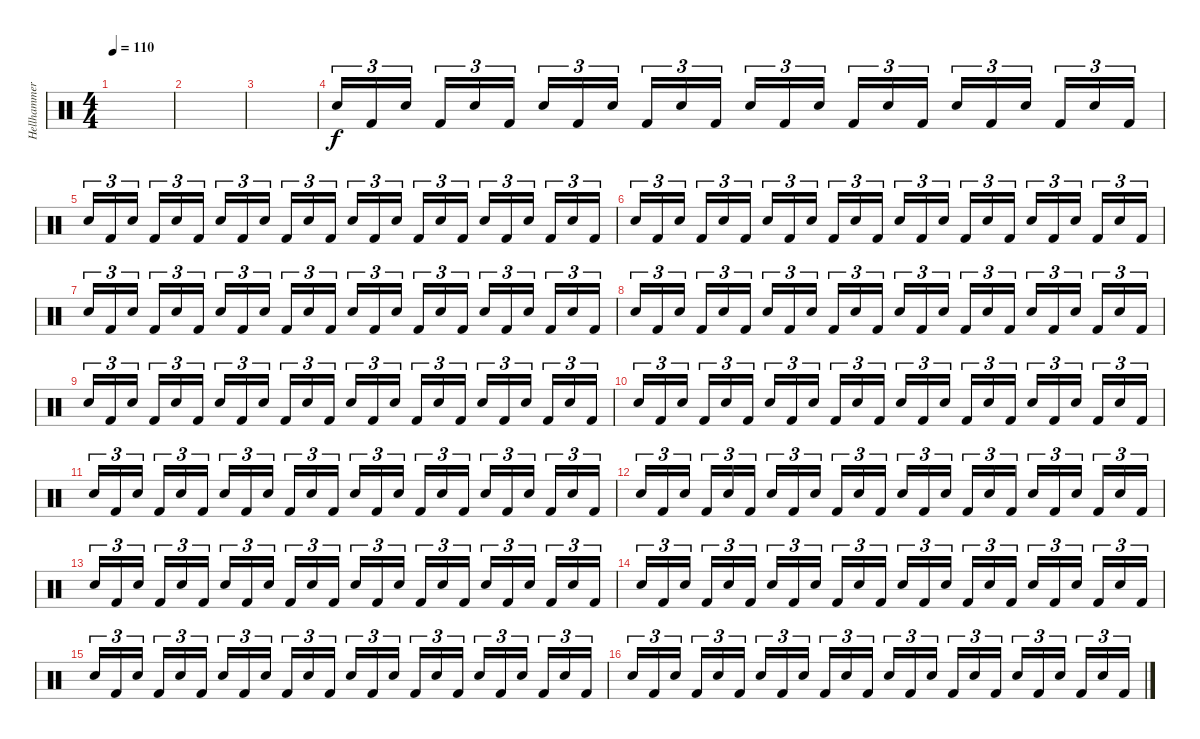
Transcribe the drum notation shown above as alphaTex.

\track ("Hellhammer" "Hellhammer") {instrument percussion}
\staff {score}
\articulation defaults
\ts (4 4)
\tempo 110
\clef neutral
\ks c
|
|
|
"Electric Snare (hit)".16{tu (3 2)} "Kick (hit) 2".16{tu (3 2)} "Electric Snare (hit)".16{tu (3 2)} "Kick (hit) 2".16{tu (3 2)} "Electric Snare (hit)".16{tu (3 2)} "Kick (hit) 2".16{tu (3 2)} "Electric Snare (hit)".16{tu (3 2)} "Kick (hit) 2".16{tu (3 2)} "Electric Snare (hit)".16{tu (3 2)} "Kick (hit) 2".16{tu (3 2)} "Electric Snare (hit)".16{tu (3 2)} "Kick (hit) 2".16{tu (3 2)} "Electric Snare (hit)".16{tu (3 2)} "Kick (hit) 2".16{tu (3 2)} "Electric Snare (hit)".16{tu (3 2)} "Kick (hit) 2".16{tu (3 2)} "Electric Snare (hit)".16{tu (3 2)} "Kick (hit) 2".16{tu (3 2)} "Electric Snare (hit)".16{tu (3 2)} "Kick (hit) 2".16{tu (3 2)} "Electric Snare (hit)".16{tu (3 2)} "Kick (hit) 2".16{tu (3 2)} "Electric Snare (hit)".16{tu (3 2)} "Kick (hit) 2".16{tu (3 2)} |
"Electric Snare (hit)".16{tu (3 2)} "Kick (hit) 2".16{tu (3 2)} "Electric Snare (hit)".16{tu (3 2)} "Kick (hit) 2".16{tu (3 2)} "Electric Snare (hit)".16{tu (3 2)} "Kick (hit) 2".16{tu (3 2)} "Electric Snare (hit)".16{tu (3 2)} "Kick (hit) 2".16{tu (3 2)} "Electric Snare (hit)".16{tu (3 2)} "Kick (hit) 2".16{tu (3 2)} "Electric Snare (hit)".16{tu (3 2)} "Kick (hit) 2".16{tu (3 2)} "Electric Snare (hit)".16{tu (3 2)} "Kick (hit) 2".16{tu (3 2)} "Electric Snare (hit)".16{tu (3 2)} "Kick (hit) 2".16{tu (3 2)} "Electric Snare (hit)".16{tu (3 2)} "Kick (hit) 2".16{tu (3 2)} "Electric Snare (hit)".16{tu (3 2)} "Kick (hit) 2".16{tu (3 2)} "Electric Snare (hit)".16{tu (3 2)} "Kick (hit) 2".16{tu (3 2)} "Electric Snare (hit)".16{tu (3 2)} "Kick (hit) 2".16{tu (3 2)} |
"Electric Snare (hit)".16{tu (3 2)} "Kick (hit) 2".16{tu (3 2)} "Electric Snare (hit)".16{tu (3 2)} "Kick (hit) 2".16{tu (3 2)} "Electric Snare (hit)".16{tu (3 2)} "Kick (hit) 2".16{tu (3 2)} "Electric Snare (hit)".16{tu (3 2)} "Kick (hit) 2".16{tu (3 2)} "Electric Snare (hit)".16{tu (3 2)} "Kick (hit) 2".16{tu (3 2)} "Electric Snare (hit)".16{tu (3 2)} "Kick (hit) 2".16{tu (3 2)} "Electric Snare (hit)".16{tu (3 2)} "Kick (hit) 2".16{tu (3 2)} "Electric Snare (hit)".16{tu (3 2)} "Kick (hit) 2".16{tu (3 2)} "Electric Snare (hit)".16{tu (3 2)} "Kick (hit) 2".16{tu (3 2)} "Electric Snare (hit)".16{tu (3 2)} "Kick (hit) 2".16{tu (3 2)} "Electric Snare (hit)".16{tu (3 2)} "Kick (hit) 2".16{tu (3 2)} "Electric Snare (hit)".16{tu (3 2)} "Kick (hit) 2".16{tu (3 2)} |
"Electric Snare (hit)".16{tu (3 2)} "Kick (hit) 2".16{tu (3 2)} "Electric Snare (hit)".16{tu (3 2)} "Kick (hit) 2".16{tu (3 2)} "Electric Snare (hit)".16{tu (3 2)} "Kick (hit) 2".16{tu (3 2)} "Electric Snare (hit)".16{tu (3 2)} "Kick (hit) 2".16{tu (3 2)} "Electric Snare (hit)".16{tu (3 2)} "Kick (hit) 2".16{tu (3 2)} "Electric Snare (hit)".16{tu (3 2)} "Kick (hit) 2".16{tu (3 2)} "Electric Snare (hit)".16{tu (3 2)} "Kick (hit) 2".16{tu (3 2)} "Electric Snare (hit)".16{tu (3 2)} "Kick (hit) 2".16{tu (3 2)} "Electric Snare (hit)".16{tu (3 2)} "Kick (hit) 2".16{tu (3 2)} "Electric Snare (hit)".16{tu (3 2)} "Kick (hit) 2".16{tu (3 2)} "Electric Snare (hit)".16{tu (3 2)} "Kick (hit) 2".16{tu (3 2)} "Electric Snare (hit)".16{tu (3 2)} "Kick (hit) 2".16{tu (3 2)} |
"Electric Snare (hit)".16{tu (3 2)} "Kick (hit) 2".16{tu (3 2)} "Electric Snare (hit)".16{tu (3 2)} "Kick (hit) 2".16{tu (3 2)} "Electric Snare (hit)".16{tu (3 2)} "Kick (hit) 2".16{tu (3 2)} "Electric Snare (hit)".16{tu (3 2)} "Kick (hit) 2".16{tu (3 2)} "Electric Snare (hit)".16{tu (3 2)} "Kick (hit) 2".16{tu (3 2)} "Electric Snare (hit)".16{tu (3 2)} "Kick (hit) 2".16{tu (3 2)} "Electric Snare (hit)".16{tu (3 2)} "Kick (hit) 2".16{tu (3 2)} "Electric Snare (hit)".16{tu (3 2)} "Kick (hit) 2".16{tu (3 2)} "Electric Snare (hit)".16{tu (3 2)} "Kick (hit) 2".16{tu (3 2)} "Electric Snare (hit)".16{tu (3 2)} "Kick (hit) 2".16{tu (3 2)} "Electric Snare (hit)".16{tu (3 2)} "Kick (hit) 2".16{tu (3 2)} "Electric Snare (hit)".16{tu (3 2)} "Kick (hit) 2".16{tu (3 2)} |
"Electric Snare (hit)".16{tu (3 2)} "Kick (hit) 2".16{tu (3 2)} "Electric Snare (hit)".16{tu (3 2)} "Kick (hit) 2".16{tu (3 2)} "Electric Snare (hit)".16{tu (3 2)} "Kick (hit) 2".16{tu (3 2)} "Electric Snare (hit)".16{tu (3 2)} "Kick (hit) 2".16{tu (3 2)} "Electric Snare (hit)".16{tu (3 2)} "Kick (hit) 2".16{tu (3 2)} "Electric Snare (hit)".16{tu (3 2)} "Kick (hit) 2".16{tu (3 2)} "Electric Snare (hit)".16{tu (3 2)} "Kick (hit) 2".16{tu (3 2)} "Electric Snare (hit)".16{tu (3 2)} "Kick (hit) 2".16{tu (3 2)} "Electric Snare (hit)".16{tu (3 2)} "Kick (hit) 2".16{tu (3 2)} "Electric Snare (hit)".16{tu (3 2)} "Kick (hit) 2".16{tu (3 2)} "Electric Snare (hit)".16{tu (3 2)} "Kick (hit) 2".16{tu (3 2)} "Electric Snare (hit)".16{tu (3 2)} "Kick (hit) 2".16{tu (3 2)} |
"Electric Snare (hit)".16{tu (3 2)} "Kick (hit) 2".16{tu (3 2)} "Electric Snare (hit)".16{tu (3 2)} "Kick (hit) 2".16{tu (3 2)} "Electric Snare (hit)".16{tu (3 2)} "Kick (hit) 2".16{tu (3 2)} "Electric Snare (hit)".16{tu (3 2)} "Kick (hit) 2".16{tu (3 2)} "Electric Snare (hit)".16{tu (3 2)} "Kick (hit) 2".16{tu (3 2)} "Electric Snare (hit)".16{tu (3 2)} "Kick (hit) 2".16{tu (3 2)} "Electric Snare (hit)".16{tu (3 2)} "Kick (hit) 2".16{tu (3 2)} "Electric Snare (hit)".16{tu (3 2)} "Kick (hit) 2".16{tu (3 2)} "Electric Snare (hit)".16{tu (3 2)} "Kick (hit) 2".16{tu (3 2)} "Electric Snare (hit)".16{tu (3 2)} "Kick (hit) 2".16{tu (3 2)} "Electric Snare (hit)".16{tu (3 2)} "Kick (hit) 2".16{tu (3 2)} "Electric Snare (hit)".16{tu (3 2)} "Kick (hit) 2".16{tu (3 2)} |
"Electric Snare (hit)".16{tu (3 2)} "Kick (hit) 2".16{tu (3 2)} "Electric Snare (hit)".16{tu (3 2)} "Kick (hit) 2".16{tu (3 2)} "Electric Snare (hit)".16{tu (3 2)} "Kick (hit) 2".16{tu (3 2)} "Electric Snare (hit)".16{tu (3 2)} "Kick (hit) 2".16{tu (3 2)} "Electric Snare (hit)".16{tu (3 2)} "Kick (hit) 2".16{tu (3 2)} "Electric Snare (hit)".16{tu (3 2)} "Kick (hit) 2".16{tu (3 2)} "Electric Snare (hit)".16{tu (3 2)} "Kick (hit) 2".16{tu (3 2)} "Electric Snare (hit)".16{tu (3 2)} "Kick (hit) 2".16{tu (3 2)} "Electric Snare (hit)".16{tu (3 2)} "Kick (hit) 2".16{tu (3 2)} "Electric Snare (hit)".16{tu (3 2)} "Kick (hit) 2".16{tu (3 2)} "Electric Snare (hit)".16{tu (3 2)} "Kick (hit) 2".16{tu (3 2)} "Electric Snare (hit)".16{tu (3 2)} "Kick (hit) 2".16{tu (3 2)} |
"Electric Snare (hit)".16{tu (3 2)} "Kick (hit) 2".16{tu (3 2)} "Electric Snare (hit)".16{tu (3 2)} "Kick (hit) 2".16{tu (3 2)} "Electric Snare (hit)".16{tu (3 2)} "Kick (hit) 2".16{tu (3 2)} "Electric Snare (hit)".16{tu (3 2)} "Kick (hit) 2".16{tu (3 2)} "Electric Snare (hit)".16{tu (3 2)} "Kick (hit) 2".16{tu (3 2)} "Electric Snare (hit)".16{tu (3 2)} "Kick (hit) 2".16{tu (3 2)} "Electric Snare (hit)".16{tu (3 2)} "Kick (hit) 2".16{tu (3 2)} "Electric Snare (hit)".16{tu (3 2)} "Kick (hit) 2".16{tu (3 2)} "Electric Snare (hit)".16{tu (3 2)} "Kick (hit) 2".16{tu (3 2)} "Electric Snare (hit)".16{tu (3 2)} "Kick (hit) 2".16{tu (3 2)} "Electric Snare (hit)".16{tu (3 2)} "Kick (hit) 2".16{tu (3 2)} "Electric Snare (hit)".16{tu (3 2)} "Kick (hit) 2".16{tu (3 2)} |
"Electric Snare (hit)".16{tu (3 2)} "Kick (hit) 2".16{tu (3 2)} "Electric Snare (hit)".16{tu (3 2)} "Kick (hit) 2".16{tu (3 2)} "Electric Snare (hit)".16{tu (3 2)} "Kick (hit) 2".16{tu (3 2)} "Electric Snare (hit)".16{tu (3 2)} "Kick (hit) 2".16{tu (3 2)} "Electric Snare (hit)".16{tu (3 2)} "Kick (hit) 2".16{tu (3 2)} "Electric Snare (hit)".16{tu (3 2)} "Kick (hit) 2".16{tu (3 2)} "Electric Snare (hit)".16{tu (3 2)} "Kick (hit) 2".16{tu (3 2)} "Electric Snare (hit)".16{tu (3 2)} "Kick (hit) 2".16{tu (3 2)} "Electric Snare (hit)".16{tu (3 2)} "Kick (hit) 2".16{tu (3 2)} "Electric Snare (hit)".16{tu (3 2)} "Kick (hit) 2".16{tu (3 2)} "Electric Snare (hit)".16{tu (3 2)} "Kick (hit) 2".16{tu (3 2)} "Electric Snare (hit)".16{tu (3 2)} "Kick (hit) 2".16{tu (3 2)} |
"Electric Snare (hit)".16{tu (3 2)} "Kick (hit) 2".16{tu (3 2)} "Electric Snare (hit)".16{tu (3 2)} "Kick (hit) 2".16{tu (3 2)} "Electric Snare (hit)".16{tu (3 2)} "Kick (hit) 2".16{tu (3 2)} "Electric Snare (hit)".16{tu (3 2)} "Kick (hit) 2".16{tu (3 2)} "Electric Snare (hit)".16{tu (3 2)} "Kick (hit) 2".16{tu (3 2)} "Electric Snare (hit)".16{tu (3 2)} "Kick (hit) 2".16{tu (3 2)} "Electric Snare (hit)".16{tu (3 2)} "Kick (hit) 2".16{tu (3 2)} "Electric Snare (hit)".16{tu (3 2)} "Kick (hit) 2".16{tu (3 2)} "Electric Snare (hit)".16{tu (3 2)} "Kick (hit) 2".16{tu (3 2)} "Electric Snare (hit)".16{tu (3 2)} "Kick (hit) 2".16{tu (3 2)} "Electric Snare (hit)".16{tu (3 2)} "Kick (hit) 2".16{tu (3 2)} "Electric Snare (hit)".16{tu (3 2)} "Kick (hit) 2".16{tu (3 2)} |
"Electric Snare (hit)".16{tu (3 2)} "Kick (hit) 2".16{tu (3 2)} "Electric Snare (hit)".16{tu (3 2)} "Kick (hit) 2".16{tu (3 2)} "Electric Snare (hit)".16{tu (3 2)} "Kick (hit) 2".16{tu (3 2)} "Electric Snare (hit)".16{tu (3 2)} "Kick (hit) 2".16{tu (3 2)} "Electric Snare (hit)".16{tu (3 2)} "Kick (hit) 2".16{tu (3 2)} "Electric Snare (hit)".16{tu (3 2)} "Kick (hit) 2".16{tu (3 2)} "Electric Snare (hit)".16{tu (3 2)} "Kick (hit) 2".16{tu (3 2)} "Electric Snare (hit)".16{tu (3 2)} "Kick (hit) 2".16{tu (3 2)} "Electric Snare (hit)".16{tu (3 2)} "Kick (hit) 2".16{tu (3 2)} "Electric Snare (hit)".16{tu (3 2)} "Kick (hit) 2".16{tu (3 2)} "Electric Snare (hit)".16{tu (3 2)} "Kick (hit) 2".16{tu (3 2)} "Electric Snare (hit)".16{tu (3 2)} "Kick (hit) 2".16{tu (3 2)} |
"Electric Snare (hit)".16{tu (3 2)} "Kick (hit) 2".16{tu (3 2)} "Electric Snare (hit)".16{tu (3 2)} "Kick (hit) 2".16{tu (3 2)} "Electric Snare (hit)".16{tu (3 2)} "Kick (hit) 2".16{tu (3 2)} "Electric Snare (hit)".16{tu (3 2)} "Kick (hit) 2".16{tu (3 2)} "Electric Snare (hit)".16{tu (3 2)} "Kick (hit) 2".16{tu (3 2)} "Electric Snare (hit)".16{tu (3 2)} "Kick (hit) 2".16{tu (3 2)} "Electric Snare (hit)".16{tu (3 2)} "Kick (hit) 2".16{tu (3 2)} "Electric Snare (hit)".16{tu (3 2)} "Kick (hit) 2".16{tu (3 2)} "Electric Snare (hit)".16{tu (3 2)} "Kick (hit) 2".16{tu (3 2)} "Electric Snare (hit)".16{tu (3 2)} "Kick (hit) 2".16{tu (3 2)} "Electric Snare (hit)".16{tu (3 2)} "Kick (hit) 2".16{tu (3 2)} "Electric Snare (hit)".16{tu (3 2)} "Kick (hit) 2".16{tu (3 2)}
